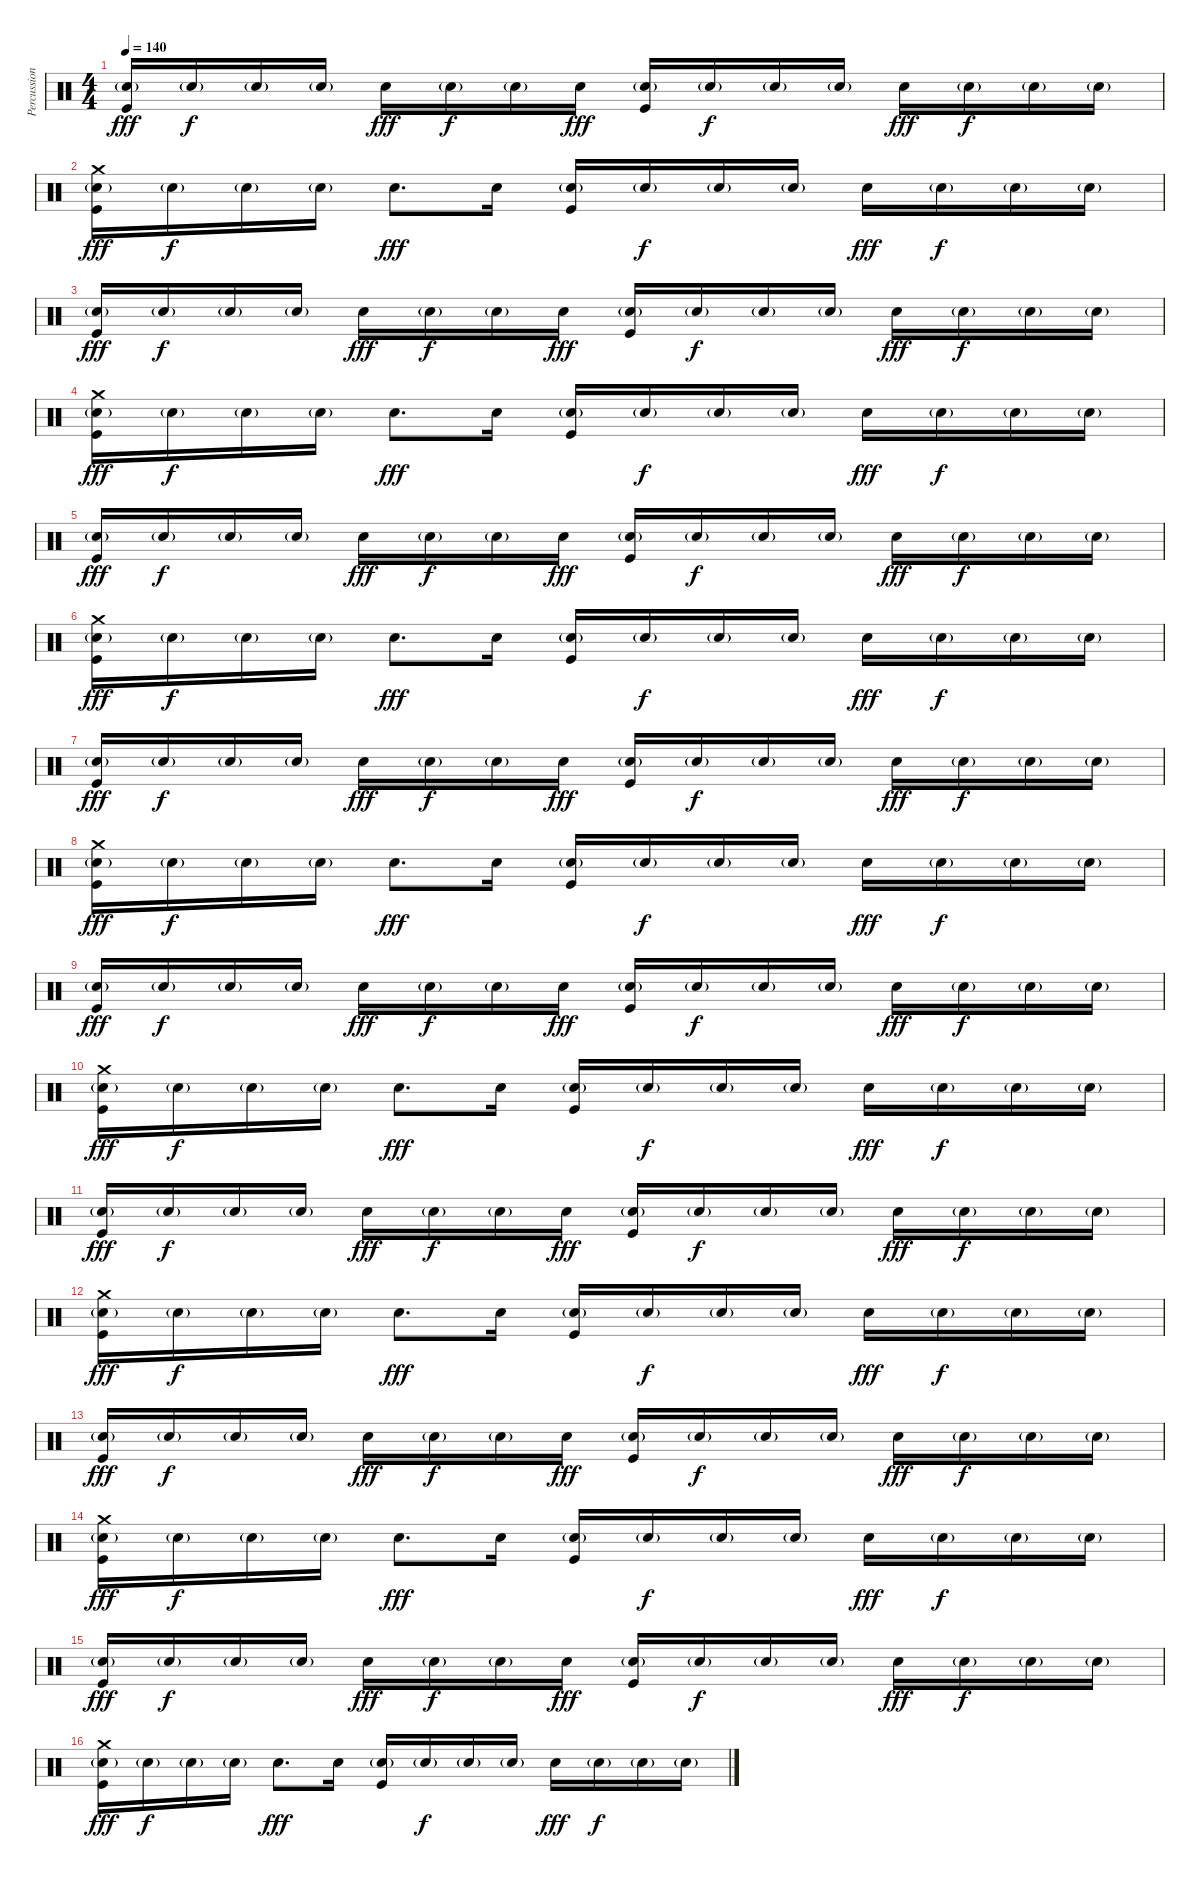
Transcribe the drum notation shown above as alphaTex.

\track ("Percussion" "Percussion") {instrument percussion}
\staff {score}
\articulation defaults
\ts (4 4)
\tempo 140
\clef neutral
\ks c
("Snare (hit) 2"{g} "Kick (hit)").16{dy fff} "Snare (hit) 2"{g}.16{dy f} "Snare (hit) 2"{g}.16 "Snare (hit) 2"{g}.16 "Snare (hit) 2".16{dy fff} "Snare (hit) 2"{g}.16{dy f} "Snare (hit) 2"{g}.16 "Snare (hit) 2".16{dy fff} ("Snare (hit) 2"{g} "Kick (hit)").16 "Snare (hit) 2"{g}.16{dy f} "Snare (hit) 2"{g}.16 "Snare (hit) 2"{g}.16 "Snare (hit) 2".16{dy fff} "Snare (hit) 2"{g}.16{dy f} "Snare (hit) 2"{g}.16 "Snare (hit) 2"{g}.16 |
("Crash medium (hit)" "Snare (hit) 2"{g} "Kick (hit)").16{dy fff} "Snare (hit) 2"{g}.16{dy f} "Snare (hit) 2"{g}.16 "Snare (hit) 2"{g}.16 "Snare (hit) 2".8{d dy fff} "Snare (hit) 2".16 ("Snare (hit) 2"{g} "Kick (hit)").16 "Snare (hit) 2"{g}.16{dy f} "Snare (hit) 2"{g}.16 "Snare (hit) 2"{g}.16 "Snare (hit) 2".16{dy fff} "Snare (hit) 2"{g}.16{dy f} "Snare (hit) 2"{g}.16 "Snare (hit) 2"{g}.16 |
("Snare (hit) 2"{g} "Kick (hit)").16{dy fff} "Snare (hit) 2"{g}.16{dy f} "Snare (hit) 2"{g}.16 "Snare (hit) 2"{g}.16 "Snare (hit) 2".16{dy fff} "Snare (hit) 2"{g}.16{dy f} "Snare (hit) 2"{g}.16 "Snare (hit) 2".16{dy fff} ("Snare (hit) 2"{g} "Kick (hit)").16 "Snare (hit) 2"{g}.16{dy f} "Snare (hit) 2"{g}.16 "Snare (hit) 2"{g}.16 "Snare (hit) 2".16{dy fff} "Snare (hit) 2"{g}.16{dy f} "Snare (hit) 2"{g}.16 "Snare (hit) 2"{g}.16 |
("Crash medium (hit)" "Snare (hit) 2"{g} "Kick (hit)").16{dy fff} "Snare (hit) 2"{g}.16{dy f} "Snare (hit) 2"{g}.16 "Snare (hit) 2"{g}.16 "Snare (hit) 2".8{d dy fff} "Snare (hit) 2".16 ("Snare (hit) 2"{g} "Kick (hit)").16 "Snare (hit) 2"{g}.16{dy f} "Snare (hit) 2"{g}.16 "Snare (hit) 2"{g}.16 "Snare (hit) 2".16{dy fff} "Snare (hit) 2"{g}.16{dy f} "Snare (hit) 2"{g}.16 "Snare (hit) 2"{g}.16 |
("Snare (hit) 2"{g} "Kick (hit)").16{dy fff} "Snare (hit) 2"{g}.16{dy f} "Snare (hit) 2"{g}.16 "Snare (hit) 2"{g}.16 "Snare (hit) 2".16{dy fff} "Snare (hit) 2"{g}.16{dy f} "Snare (hit) 2"{g}.16 "Snare (hit) 2".16{dy fff} ("Snare (hit) 2"{g} "Kick (hit)").16 "Snare (hit) 2"{g}.16{dy f} "Snare (hit) 2"{g}.16 "Snare (hit) 2"{g}.16 "Snare (hit) 2".16{dy fff} "Snare (hit) 2"{g}.16{dy f} "Snare (hit) 2"{g}.16 "Snare (hit) 2"{g}.16 |
("Crash medium (hit)" "Snare (hit) 2"{g} "Kick (hit)").16{dy fff} "Snare (hit) 2"{g}.16{dy f} "Snare (hit) 2"{g}.16 "Snare (hit) 2"{g}.16 "Snare (hit) 2".8{d dy fff} "Snare (hit) 2".16 ("Snare (hit) 2"{g} "Kick (hit)").16 "Snare (hit) 2"{g}.16{dy f} "Snare (hit) 2"{g}.16 "Snare (hit) 2"{g}.16 "Snare (hit) 2".16{dy fff} "Snare (hit) 2"{g}.16{dy f} "Snare (hit) 2"{g}.16 "Snare (hit) 2"{g}.16 |
("Snare (hit) 2"{g} "Kick (hit)").16{dy fff} "Snare (hit) 2"{g}.16{dy f} "Snare (hit) 2"{g}.16 "Snare (hit) 2"{g}.16 "Snare (hit) 2".16{dy fff} "Snare (hit) 2"{g}.16{dy f} "Snare (hit) 2"{g}.16 "Snare (hit) 2".16{dy fff} ("Snare (hit) 2"{g} "Kick (hit)").16 "Snare (hit) 2"{g}.16{dy f} "Snare (hit) 2"{g}.16 "Snare (hit) 2"{g}.16 "Snare (hit) 2".16{dy fff} "Snare (hit) 2"{g}.16{dy f} "Snare (hit) 2"{g}.16 "Snare (hit) 2"{g}.16 |
("Crash medium (hit)" "Snare (hit) 2"{g} "Kick (hit)").16{dy fff} "Snare (hit) 2"{g}.16{dy f} "Snare (hit) 2"{g}.16 "Snare (hit) 2"{g}.16 "Snare (hit) 2".8{d dy fff} "Snare (hit) 2".16 ("Snare (hit) 2"{g} "Kick (hit)").16 "Snare (hit) 2"{g}.16{dy f} "Snare (hit) 2"{g}.16 "Snare (hit) 2"{g}.16 "Snare (hit) 2".16{dy fff} "Snare (hit) 2"{g}.16{dy f} "Snare (hit) 2"{g}.16 "Snare (hit) 2"{g}.16 |
("Snare (hit) 2"{g} "Kick (hit)").16{dy fff} "Snare (hit) 2"{g}.16{dy f} "Snare (hit) 2"{g}.16 "Snare (hit) 2"{g}.16 "Snare (hit) 2".16{dy fff} "Snare (hit) 2"{g}.16{dy f} "Snare (hit) 2"{g}.16 "Snare (hit) 2".16{dy fff} ("Snare (hit) 2"{g} "Kick (hit)").16 "Snare (hit) 2"{g}.16{dy f} "Snare (hit) 2"{g}.16 "Snare (hit) 2"{g}.16 "Snare (hit) 2".16{dy fff} "Snare (hit) 2"{g}.16{dy f} "Snare (hit) 2"{g}.16 "Snare (hit) 2"{g}.16 |
("Crash medium (hit)" "Snare (hit) 2"{g} "Kick (hit)").16{dy fff} "Snare (hit) 2"{g}.16{dy f} "Snare (hit) 2"{g}.16 "Snare (hit) 2"{g}.16 "Snare (hit) 2".8{d dy fff} "Snare (hit) 2".16 ("Snare (hit) 2"{g} "Kick (hit)").16 "Snare (hit) 2"{g}.16{dy f} "Snare (hit) 2"{g}.16 "Snare (hit) 2"{g}.16 "Snare (hit) 2".16{dy fff} "Snare (hit) 2"{g}.16{dy f} "Snare (hit) 2"{g}.16 "Snare (hit) 2"{g}.16 |
("Snare (hit) 2"{g} "Kick (hit)").16{dy fff} "Snare (hit) 2"{g}.16{dy f} "Snare (hit) 2"{g}.16 "Snare (hit) 2"{g}.16 "Snare (hit) 2".16{dy fff} "Snare (hit) 2"{g}.16{dy f} "Snare (hit) 2"{g}.16 "Snare (hit) 2".16{dy fff} ("Snare (hit) 2"{g} "Kick (hit)").16 "Snare (hit) 2"{g}.16{dy f} "Snare (hit) 2"{g}.16 "Snare (hit) 2"{g}.16 "Snare (hit) 2".16{dy fff} "Snare (hit) 2"{g}.16{dy f} "Snare (hit) 2"{g}.16 "Snare (hit) 2"{g}.16 |
("Crash medium (hit)" "Snare (hit) 2"{g} "Kick (hit)").16{dy fff} "Snare (hit) 2"{g}.16{dy f} "Snare (hit) 2"{g}.16 "Snare (hit) 2"{g}.16 "Snare (hit) 2".8{d dy fff} "Snare (hit) 2".16 ("Snare (hit) 2"{g} "Kick (hit)").16 "Snare (hit) 2"{g}.16{dy f} "Snare (hit) 2"{g}.16 "Snare (hit) 2"{g}.16 "Snare (hit) 2".16{dy fff} "Snare (hit) 2"{g}.16{dy f} "Snare (hit) 2"{g}.16 "Snare (hit) 2"{g}.16 |
("Snare (hit) 2"{g} "Kick (hit)").16{dy fff} "Snare (hit) 2"{g}.16{dy f} "Snare (hit) 2"{g}.16 "Snare (hit) 2"{g}.16 "Snare (hit) 2".16{dy fff} "Snare (hit) 2"{g}.16{dy f} "Snare (hit) 2"{g}.16 "Snare (hit) 2".16{dy fff} ("Snare (hit) 2"{g} "Kick (hit)").16 "Snare (hit) 2"{g}.16{dy f} "Snare (hit) 2"{g}.16 "Snare (hit) 2"{g}.16 "Snare (hit) 2".16{dy fff} "Snare (hit) 2"{g}.16{dy f} "Snare (hit) 2"{g}.16 "Snare (hit) 2"{g}.16 |
("Crash medium (hit)" "Snare (hit) 2"{g} "Kick (hit)").16{dy fff} "Snare (hit) 2"{g}.16{dy f} "Snare (hit) 2"{g}.16 "Snare (hit) 2"{g}.16 "Snare (hit) 2".8{d dy fff} "Snare (hit) 2".16 ("Snare (hit) 2"{g} "Kick (hit)").16 "Snare (hit) 2"{g}.16{dy f} "Snare (hit) 2"{g}.16 "Snare (hit) 2"{g}.16 "Snare (hit) 2".16{dy fff} "Snare (hit) 2"{g}.16{dy f} "Snare (hit) 2"{g}.16 "Snare (hit) 2"{g}.16 |
("Snare (hit) 2"{g} "Kick (hit)").16{dy fff} "Snare (hit) 2"{g}.16{dy f} "Snare (hit) 2"{g}.16 "Snare (hit) 2"{g}.16 "Snare (hit) 2".16{dy fff} "Snare (hit) 2"{g}.16{dy f} "Snare (hit) 2"{g}.16 "Snare (hit) 2".16{dy fff} ("Snare (hit) 2"{g} "Kick (hit)").16 "Snare (hit) 2"{g}.16{dy f} "Snare (hit) 2"{g}.16 "Snare (hit) 2"{g}.16 "Snare (hit) 2".16{dy fff} "Snare (hit) 2"{g}.16{dy f} "Snare (hit) 2"{g}.16 "Snare (hit) 2"{g}.16 |
("Crash medium (hit)" "Snare (hit) 2"{g} "Kick (hit)").16{dy fff} "Snare (hit) 2"{g}.16{dy f} "Snare (hit) 2"{g}.16 "Snare (hit) 2"{g}.16 "Snare (hit) 2".8{d dy fff} "Snare (hit) 2".16 ("Snare (hit) 2"{g} "Kick (hit)").16 "Snare (hit) 2"{g}.16{dy f} "Snare (hit) 2"{g}.16 "Snare (hit) 2"{g}.16 "Snare (hit) 2".16{dy fff} "Snare (hit) 2"{g}.16{dy f} "Snare (hit) 2"{g}.16 "Snare (hit) 2"{g}.16
